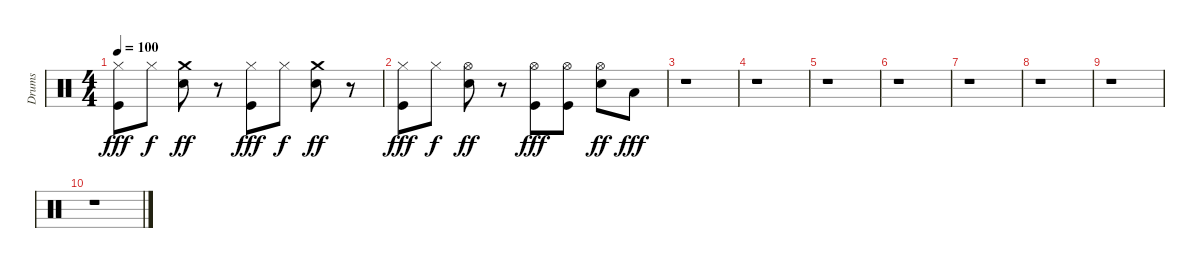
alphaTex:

\track ("Drums" "Drums") {instrument percussion}
\staff {score}
\articulation defaults
\ts (4 4)
\tempo 100
\clef neutral
\ks c
("Kick (hit)" "Hi-Hat (closed)").8{dy fff} "Hi-Hat (closed)".8{dy f} ("Snare (hit) 2" "Crash medium (hit)").8{dy ff} r.8 ("Kick (hit)" "Hi-Hat (closed)").8{dy fff} "Hi-Hat (closed)".8{dy f} ("Snare (hit) 2" "Crash medium (hit)").8{dy ff} r.8 |
("Kick (hit)" "Hi-Hat (closed)").8{dy fff} "Hi-Hat (closed)".8{dy f} ("Snare (hit) 2" "Hi-Hat (open)").8{dy ff} r.8 ("Kick (hit)" "Hi-Hat (open)").8{dy fff} ("Kick (hit)" "Hi-Hat (open)").8 ("Snare (hit) 2" "Hi-Hat (open)").8{dy ff} "Low Tom (hit)".8{dy fff} |
r.1 |
r.1 |
r.1 |
r.1 |
r.1 |
r.1 |
r.1 |
r.1
